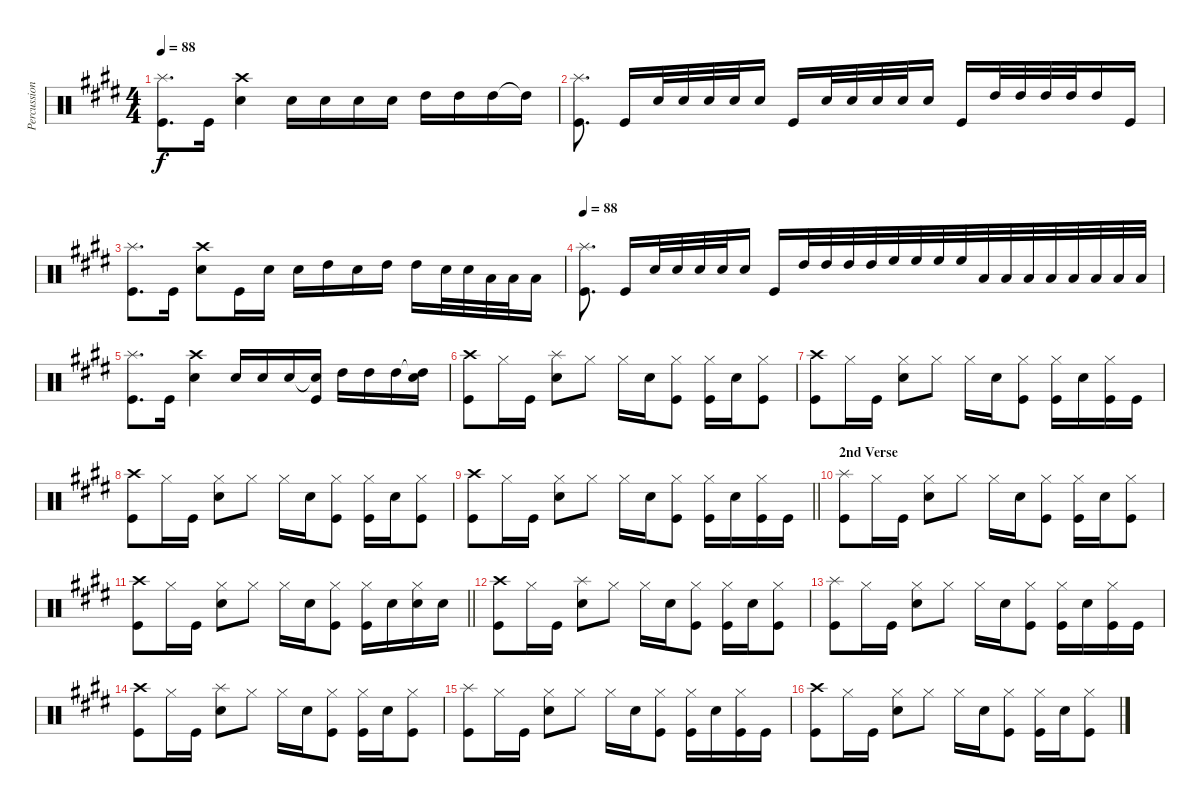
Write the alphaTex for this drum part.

\track ("Percussion" "Percussion") {instrument percussion}
\staff {score}
\articulation defaults
\ts (4 4)
\tempo 88
\clef neutral
\ks e
("Splash (hit)" "Kick (hit)").8{d dy f} "Kick (hit)".16 ("Crash high (hit)" "Snare (hit) 2").4 "Snare (hit) 2".16 "Snare (hit) 2".16 "Snare (hit) 2".16 "Snare (hit) 2".16 "High Tom (hit)".16 "High Tom (hit)".16 "High Tom (hit)".16 "High Tom (hit)"{t}.16 |
("Splash (hit)" "Kick (hit)").8{d beam split} "Kick (hit)".16{beam merge} "Snare (hit) 2".32 "Snare (hit) 2".32 "Snare (hit) 2".32 "Snare (hit) 2".32 "Snare (hit) 2".16{beam split} "Kick (hit)".16{beam merge} "Snare (hit) 2".32 "Snare (hit) 2".32{beam merge} "Snare (hit) 2".32 "Snare (hit) 2".32 "Snare (hit) 2".16{beam split} "Kick (hit)".16{beam merge} "High Tom (hit)".32{beam merge} "High Tom (hit)".32{beam merge} "High Tom (hit)".32{beam merge} "High Tom (hit)".32 "High Tom (hit)".16 "Kick (hit)".16 |
("Splash (hit)" "Kick (hit)").8{d} "Kick (hit)".16 ("Crash high (hit)" "Snare (hit) 2").8 "Kick (hit)".16 "Snare (hit) 2".16 "Snare (hit) 2".16 "High Tom (hit)".16 "Snare (hit) 2".16 "High Tom (hit)".16 "High Tom (hit)".16 "Snare (hit) 2".32 "Snare (hit) 2".32 "Low Tom (hit)".32 "Low Tom (hit)".32 "Low Tom (hit)".16 |
\tempo 88
("Splash (hit)" "Kick (hit)").8{d beam split} "Kick (hit)".16{beam merge} "Snare (hit) 2".32 "Snare (hit) 2".32 "Snare (hit) 2".32 "Snare (hit) 2".32 "Snare (hit) 2".16{beam split} "Kick (hit)".16{beam merge} "High Tom (hit)".32 "High Tom (hit)".32{beam merge} "High Tom (hit)".32 "High Tom (hit)".32 "High Floor Tom (hit)".32{beam merge} "High Floor Tom (hit)".32{beam merge} "High Floor Tom (hit)".32{beam merge} "High Floor Tom (hit)".32{beam merge} "Low Tom (hit)".32 "Low Tom (hit)".32 "Low Tom (hit)".32 "Low Tom (hit)".32 "Low Floor Tom (hit)".32 "Low Floor Tom (hit)".32 "Low Floor Tom (hit)".32 "Low Floor Tom (hit)".32 |
("Splash (hit)" "Kick (hit)").8{d} "Kick (hit)".16 ("Crash high (hit)" "Snare (hit) 2").4 "Snare (hit) 2".16 "Snare (hit) 2".16 "Snare (hit) 2".16 ("Snare (hit) 2"{t} "Kick (hit)").16 "High Tom (hit)".16 "High Tom (hit)".16 "High Tom (hit)".16 ("High Tom (hit)"{t} "Snare (hit) 2").16 |
("Crash high (hit)" "Kick (hit)").8 "Hi-Hat (closed)".16 "Kick (hit)".16 ("Splash (hit)" "Snare (hit) 2").8 "Hi-Hat (closed)".8 "Hi-Hat (closed)".16 "Snare (hit) 2".16 ("Hi-Hat (closed)" "Kick (hit)").8 ("Hi-Hat (closed)" "Kick (hit)").16 "Snare (hit) 2".16 ("Hi-Hat (closed)" "Kick (hit)").8 |
("Crash high (hit)" "Kick (hit)").8 "Hi-Hat (closed)".16 "Kick (hit)".16 ("Hi-Hat (closed)" "Snare (hit) 2").8 "Hi-Hat (closed)".8 "Hi-Hat (closed)".16 "Snare (hit) 2".16 ("Hi-Hat (closed)" "Kick (hit)").8 ("Hi-Hat (closed)" "Kick (hit)").16 "Snare (hit) 2".16 ("Hi-Hat (closed)" "Kick (hit)").16 "Kick (hit)".16 |
("Crash high (hit)" "Kick (hit)").8 "Hi-Hat (closed)".16 "Kick (hit)".16 ("Hi-Hat (closed)" "Snare (hit) 2").8 "Hi-Hat (closed)".8 "Hi-Hat (closed)".16 "Snare (hit) 2".16 ("Hi-Hat (closed)" "Kick (hit)").8 ("Hi-Hat (closed)" "Kick (hit)").16 "Snare (hit) 2".16 ("Hi-Hat (closed)" "Kick (hit)").8 |
\barLineRight lightlight
("Crash high (hit)" "Kick (hit)").8 "Hi-Hat (closed)".16 "Kick (hit)".16 ("Hi-Hat (closed)" "Snare (hit) 2").8 "Hi-Hat (closed)".8 "Hi-Hat (closed)".16 "Snare (hit) 2".16 ("Hi-Hat (closed)" "Kick (hit)").8 ("Hi-Hat (closed)" "Kick (hit)").16 "Snare (hit) 2".16 ("Hi-Hat (closed)" "Kick (hit)").16 "Kick (hit)".16 |
\section ("" "2nd Verse")
("Splash (hit)" "Kick (hit)").8 "Hi-Hat (closed)".16 "Kick (hit)".16 ("Hi-Hat (closed)" "Snare (hit) 2").8 "Hi-Hat (closed)".8 "Hi-Hat (closed)".16 "Snare (hit) 2".16 ("Hi-Hat (closed)" "Kick (hit)").8 ("Hi-Hat (closed)" "Kick (hit)").16 "Snare (hit) 2".16 ("Hi-Hat (closed)" "Kick (hit)").8 |
\barLineRight lightlight
("Crash high (hit)" "Kick (hit)").8 "Hi-Hat (closed)".16 "Kick (hit)".16 ("Hi-Hat (closed)" "Snare (hit) 2").8 "Hi-Hat (closed)".8 "Hi-Hat (closed)".16 "Snare (hit) 2".16 ("Hi-Hat (closed)" "Kick (hit)").8 ("Hi-Hat (closed)" "Kick (hit)").16 "Snare (hit) 2".16 ("Hi-Hat (closed)" "Snare (hit) 2").16 "Snare (hit) 2".16 |
("Crash high (hit)" "Kick (hit)").8 "Hi-Hat (closed)".16 "Kick (hit)".16 ("Splash (hit)" "Snare (hit) 2").8 "Hi-Hat (closed)".8 "Hi-Hat (closed)".16 "Snare (hit) 2".16 ("Hi-Hat (closed)" "Kick (hit)").8 ("Hi-Hat (closed)" "Kick (hit)").16 "Snare (hit) 2".16 ("Hi-Hat (closed)" "Kick (hit)").8 |
("Splash (hit)" "Kick (hit)").8 "Hi-Hat (closed)".16 "Kick (hit)".16 ("Hi-Hat (closed)" "Snare (hit) 2").8 "Hi-Hat (closed)".8 "Hi-Hat (closed)".16 "Snare (hit) 2".16 ("Hi-Hat (closed)" "Kick (hit)").8 ("Hi-Hat (closed)" "Kick (hit)").16 "Snare (hit) 2".16 ("Hi-Hat (closed)" "Kick (hit)").16 "Kick (hit)".16 |
("Crash high (hit)" "Kick (hit)").8 "Hi-Hat (closed)".16 "Kick (hit)".16 ("Splash (hit)" "Snare (hit) 2").8 "Hi-Hat (closed)".8 "Hi-Hat (closed)".16 "Snare (hit) 2".16 ("Hi-Hat (closed)" "Kick (hit)").8 ("Hi-Hat (closed)" "Kick (hit)").16 "Snare (hit) 2".16 ("Hi-Hat (closed)" "Kick (hit)").8 |
("Splash (hit)" "Kick (hit)").8 "Hi-Hat (closed)".16 "Kick (hit)".16 ("Hi-Hat (closed)" "Snare (hit) 2").8 "Hi-Hat (closed)".8 "Hi-Hat (closed)".16 "Snare (hit) 2".16 ("Hi-Hat (closed)" "Kick (hit)").8 ("Hi-Hat (closed)" "Kick (hit)").16 "Snare (hit) 2".16 ("Hi-Hat (closed)" "Kick (hit)").16 "Kick (hit)".16 |
("Crash high (hit)" "Kick (hit)").8 "Hi-Hat (closed)".16 "Kick (hit)".16 ("Hi-Hat (closed)" "Snare (hit) 2").8 "Hi-Hat (closed)".8 "Hi-Hat (closed)".16 "Snare (hit) 2".16 ("Hi-Hat (closed)" "Kick (hit)").8 ("Hi-Hat (closed)" "Kick (hit)").16 "Snare (hit) 2".16 ("Hi-Hat (closed)" "Kick (hit)").8
